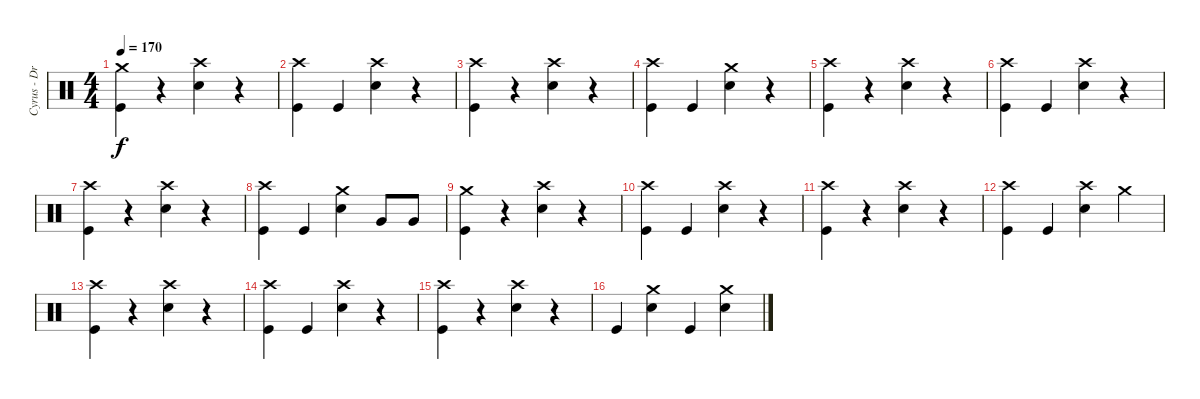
\track ("Cyrus - Drums" "Cyrus - Dr") {instrument percussion}
\staff {score}
\articulation defaults
\ts (4 4)
\tempo 170
\clef neutral
\ks c
("Crash medium (hit)" "Kick (hit)").4{dy f} r.4 ("Crash high (hit)" "Electric Snare (hit)").4 r.4 |
("Crash high (hit)" "Kick (hit)").4 "Kick (hit)".4 ("Crash high (hit)" "Electric Snare (hit)").4 r.4 |
("Crash high (hit)" "Kick (hit)").4 r.4 ("Crash high (hit)" "Electric Snare (hit)").4 r.4 |
("Crash high (hit)" "Kick (hit)").4 "Kick (hit)".4 ("Crash medium (hit)" "Electric Snare (hit)").4 r.4 |
("Crash high (hit)" "Kick (hit)").4 r.4 ("Crash high (hit)" "Electric Snare (hit)").4 r.4 |
("Crash high (hit)" "Kick (hit)").4 "Kick (hit)".4 ("Crash high (hit)" "Electric Snare (hit)").4 r.4 |
("Crash high (hit)" "Kick (hit)").4 r.4 ("Crash high (hit)" "Electric Snare (hit)").4 r.4 |
("Crash high (hit)" "Kick (hit)").4 "Kick (hit)".4 ("Crash medium (hit)" "Electric Snare (hit)").4 "Very Low Tom (hit)".8 "Very Low Tom (hit)".8 |
("Crash medium (hit)" "Kick (hit)").4 r.4 ("Crash high (hit)" "Electric Snare (hit)").4 r.4 |
("Crash high (hit)" "Kick (hit)").4 "Kick (hit)".4 ("Crash high (hit)" "Electric Snare (hit)").4 r.4 |
("Crash high (hit)" "Kick (hit)").4 r.4 ("Crash high (hit)" "Electric Snare (hit)").4 r.4 |
("Crash high (hit)" "Kick (hit)").4 "Kick (hit)".4 ("Crash high (hit)" "Electric Snare (hit)").4 "Crash medium (hit)".4 |
("Crash high (hit)" "Kick (hit)").4 r.4 ("Crash high (hit)" "Electric Snare (hit)").4 r.4 |
("Crash high (hit)" "Kick (hit)").4 "Kick (hit)".4 ("Crash high (hit)" "Electric Snare (hit)").4 r.4 |
("Crash high (hit)" "Kick (hit)").4 r.4 ("Crash high (hit)" "Electric Snare (hit)").4 r.4 |
"Kick (hit)".4 ("Crash medium (hit)" "Electric Snare (hit)").4 "Kick (hit)".4 ("Crash medium (hit)" "Electric Snare (hit)").4
